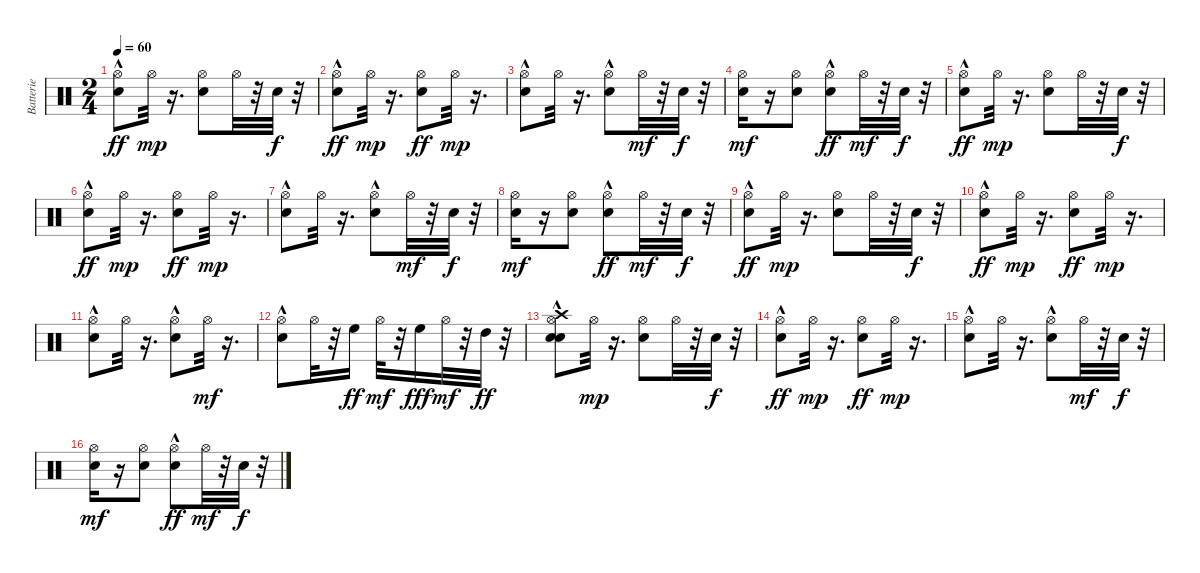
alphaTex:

\track ("Batterie" "Batterie") {instrument percussion}
\staff {score}
\articulation defaults
\ts (2 4)
\tempo 60
\clef neutral
\ks c
("Hi-Hat (open)" "Snare (hit)"{hac}).8{dy ff} "Hi-Hat (open)".32{dy mp} r.16{d} ("Hi-Hat (open)" "Electric Snare (hit)").8 "Hi-Hat (open)".32 r.32 "Snare (hit)".32{dy f} r.32 |
("Hi-Hat (open)" "Snare (hit)"{hac}).8{dy ff} "Hi-Hat (open)".32{dy mp} r.16{d} ("Hi-Hat (open)" "Electric Snare (hit)").8{dy ff} "Hi-Hat (open)".32{dy mp} r.16{d} |
("Snare (hit)"{hac} "Hi-Hat (open)").8 "Hi-Hat (open)".32 r.16{d} ("Electric Snare (hit)"{hac} "Hi-Hat (open)").8 "Hi-Hat (open)".32{dy mf} r.32 "Snare (hit)".32{dy f} r.32 |
("Snare (hit)" "Hi-Hat (open)").16{dy mf} r.16 ("Snare (hit)" "Hi-Hat (open)").8 ("Hi-Hat (open)" "Electric Snare (hit)"{hac}).8{dy ff} "Hi-Hat (open)".32{dy mf} r.32 "Snare (hit)".32{dy f} r.32 |
("Hi-Hat (open)" "Snare (hit)"{hac}).8{dy ff} "Hi-Hat (open)".32{dy mp} r.16{d} ("Hi-Hat (open)" "Electric Snare (hit)").8 "Hi-Hat (open)".32 r.32 "Snare (hit)".32{dy f} r.32 |
("Hi-Hat (open)" "Snare (hit)"{hac}).8{dy ff} "Hi-Hat (open)".32{dy mp} r.16{d} ("Hi-Hat (open)" "Electric Snare (hit)").8{dy ff} "Hi-Hat (open)".32{dy mp} r.16{d} |
("Snare (hit)"{hac} "Hi-Hat (open)").8 "Hi-Hat (open)".32 r.16{d} ("Electric Snare (hit)"{hac} "Hi-Hat (open)").8 "Hi-Hat (open)".32{dy mf} r.32 "Snare (hit)".32{dy f} r.32 |
("Snare (hit)" "Hi-Hat (open)").16{dy mf} r.16 ("Snare (hit)" "Hi-Hat (open)").8 ("Hi-Hat (open)" "Electric Snare (hit)"{hac}).8{dy ff} "Hi-Hat (open)".32{dy mf} r.32 "Snare (hit)".32{dy f} r.32 |
("Hi-Hat (open)" "Snare (hit)"{hac}).8{dy ff} "Hi-Hat (open)".32{dy mp} r.16{d} ("Hi-Hat (open)" "Electric Snare (hit)").8 "Hi-Hat (open)".32 r.32 "Snare (hit)".32{dy f} r.32 |
("Hi-Hat (open)" "Snare (hit)"{hac}).8{dy ff} "Hi-Hat (open)".32{dy mp} r.16{d} ("Hi-Hat (open)" "Electric Snare (hit)").8{dy ff} "Hi-Hat (open)".32{dy mp} r.16{d} |
("Snare (hit)"{hac} "Hi-Hat (open)").8 "Hi-Hat (open)".32 r.16{d} ("Electric Snare (hit)"{hac} "Hi-Hat (open)").8 "Hi-Hat (open)".32{dy mf} r.16{d} |
("Snare (hit)"{hac} "Hi-Hat (open)").8 "Hi-Hat (open)".32 r.32 "High Floor Tom (hit)".16{dy ff} "Hi-Hat (open)".32{dy mf} r.32 "High Floor Tom (hit)".16{dy fff} "Hi-Hat (open)".32{dy mf} r.32 "High Tom (hit)".32{dy ff} r.32 |
("Crash high (hit)" "Snare (hit)" "Hi-Hat (open)" "Snare (hit)"{hac}).8 "Hi-Hat (open)".32{dy mp} r.16{d} ("Hi-Hat (open)" "Electric Snare (hit)").8 "Hi-Hat (open)".32 r.32 "Snare (hit)".32{dy f} r.32 |
("Hi-Hat (open)" "Snare (hit)"{hac}).8{dy ff} "Hi-Hat (open)".32{dy mp} r.16{d} ("Hi-Hat (open)" "Electric Snare (hit)").8{dy ff} "Hi-Hat (open)".32{dy mp} r.16{d} |
("Snare (hit)"{hac} "Hi-Hat (open)").8 "Hi-Hat (open)".32 r.16{d} ("Electric Snare (hit)"{hac} "Hi-Hat (open)").8 "Hi-Hat (open)".32{dy mf} r.32 "Snare (hit)".32{dy f} r.32 |
("Snare (hit)" "Hi-Hat (open)").16{dy mf} r.16 ("Snare (hit)" "Hi-Hat (open)").8 ("Hi-Hat (open)" "Electric Snare (hit)"{hac}).8{dy ff} "Hi-Hat (open)".32{dy mf} r.32 "Snare (hit)".32{dy f} r.32
